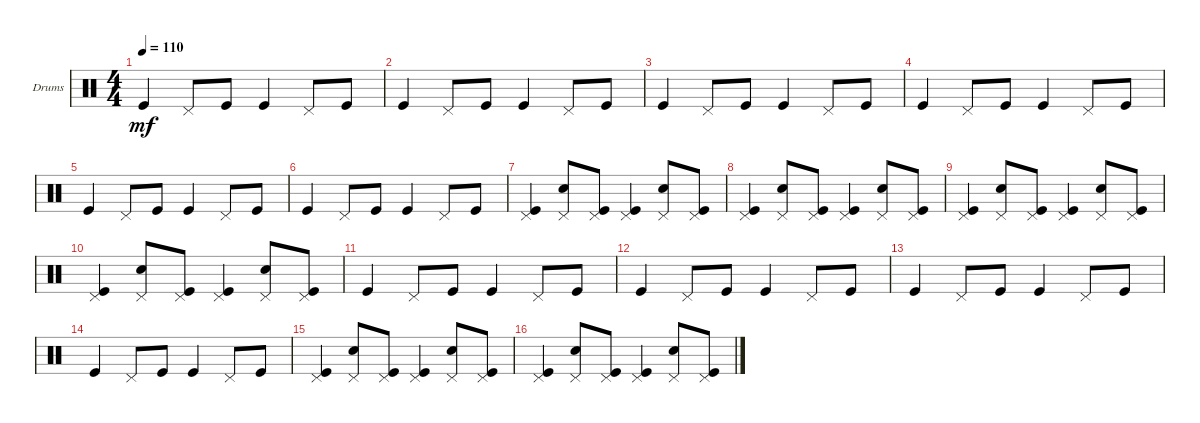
\bracketExtendMode groupsimilarinstruments
\firstSystemTrackNameOrientation horizontal
\otherSystemsTrackNameOrientation horizontal
\track ("Drumkit" "Drums") {instrument percussion}
\staff {score}
\articulation defaults
\ts (4 4)
\tempo 110
\clef neutral
\ks c "Kick (hit)".4{dy mf} "Pedal Hi-Hat (hit)".8 "Kick (hit)".8 "Kick (hit)".4 "Pedal Hi-Hat (hit)".8 "Kick (hit)".8
|
"Kick (hit)".4 "Pedal Hi-Hat (hit)".8 "Kick (hit)".8 "Kick (hit)".4 "Pedal Hi-Hat (hit)".8 "Kick (hit)".8 |
"Kick (hit)".4 "Pedal Hi-Hat (hit)".8 "Kick (hit)".8 "Kick (hit)".4 "Pedal Hi-Hat (hit)".8 "Kick (hit)".8 |
"Kick (hit)".4 "Pedal Hi-Hat (hit)".8 "Kick (hit)".8 "Kick (hit)".4 "Pedal Hi-Hat (hit)".8 "Kick (hit)".8 |
"Kick (hit)".4 "Pedal Hi-Hat (hit)".8 "Kick (hit)".8 "Kick (hit)".4 "Pedal Hi-Hat (hit)".8 "Kick (hit)".8 |
"Kick (hit)".4 "Pedal Hi-Hat (hit)".8 "Kick (hit)".8 "Kick (hit)".4 "Pedal Hi-Hat (hit)".8 "Kick (hit)".8 |
("Kick (hit)" "Pedal Hi-Hat (hit)").4 ("Snare (hit) 2" "Pedal Hi-Hat (hit)").8 ("Kick (hit)" "Pedal Hi-Hat (hit)").8 ("Kick (hit)" "Pedal Hi-Hat (hit)").4 ("Snare (hit) 2" "Pedal Hi-Hat (hit)").8 ("Kick (hit)" "Pedal Hi-Hat (hit)").8 |
("Kick (hit)" "Pedal Hi-Hat (hit)").4 ("Snare (hit) 2" "Pedal Hi-Hat (hit)").8 ("Kick (hit)" "Pedal Hi-Hat (hit)").8 ("Kick (hit)" "Pedal Hi-Hat (hit)").4 ("Snare (hit) 2" "Pedal Hi-Hat (hit)").8 ("Kick (hit)" "Pedal Hi-Hat (hit)").8 |
("Kick (hit)" "Pedal Hi-Hat (hit)").4 ("Snare (hit) 2" "Pedal Hi-Hat (hit)").8 ("Kick (hit)" "Pedal Hi-Hat (hit)").8 ("Kick (hit)" "Pedal Hi-Hat (hit)").4 ("Snare (hit) 2" "Pedal Hi-Hat (hit)").8 ("Kick (hit)" "Pedal Hi-Hat (hit)").8 |
("Kick (hit)" "Pedal Hi-Hat (hit)").4 ("Snare (hit) 2" "Pedal Hi-Hat (hit)").8 ("Kick (hit)" "Pedal Hi-Hat (hit)").8 ("Kick (hit)" "Pedal Hi-Hat (hit)").4 ("Snare (hit) 2" "Pedal Hi-Hat (hit)").8 ("Kick (hit)" "Pedal Hi-Hat (hit)").8 |
"Kick (hit)".4 "Pedal Hi-Hat (hit)".8 "Kick (hit)".8 "Kick (hit)".4 "Pedal Hi-Hat (hit)".8 "Kick (hit)".8 |
"Kick (hit)".4 "Pedal Hi-Hat (hit)".8 "Kick (hit)".8 "Kick (hit)".4 "Pedal Hi-Hat (hit)".8 "Kick (hit)".8 |
"Kick (hit)".4 "Pedal Hi-Hat (hit)".8 "Kick (hit)".8 "Kick (hit)".4 "Pedal Hi-Hat (hit)".8 "Kick (hit)".8 |
"Kick (hit)".4 "Pedal Hi-Hat (hit)".8 "Kick (hit)".8 "Kick (hit)".4 "Pedal Hi-Hat (hit)".8 "Kick (hit)".8 |
("Kick (hit)" "Pedal Hi-Hat (hit)").4 ("Snare (hit) 2" "Pedal Hi-Hat (hit)").8 ("Kick (hit)" "Pedal Hi-Hat (hit)").8 ("Kick (hit)" "Pedal Hi-Hat (hit)").4 ("Snare (hit) 2" "Pedal Hi-Hat (hit)").8 ("Kick (hit)" "Pedal Hi-Hat (hit)").8 |
("Kick (hit)" "Pedal Hi-Hat (hit)").4 ("Snare (hit) 2" "Pedal Hi-Hat (hit)").8 ("Kick (hit)" "Pedal Hi-Hat (hit)").8 ("Kick (hit)" "Pedal Hi-Hat (hit)").4 ("Snare (hit) 2" "Pedal Hi-Hat (hit)").8 ("Kick (hit)" "Pedal Hi-Hat (hit)").8
